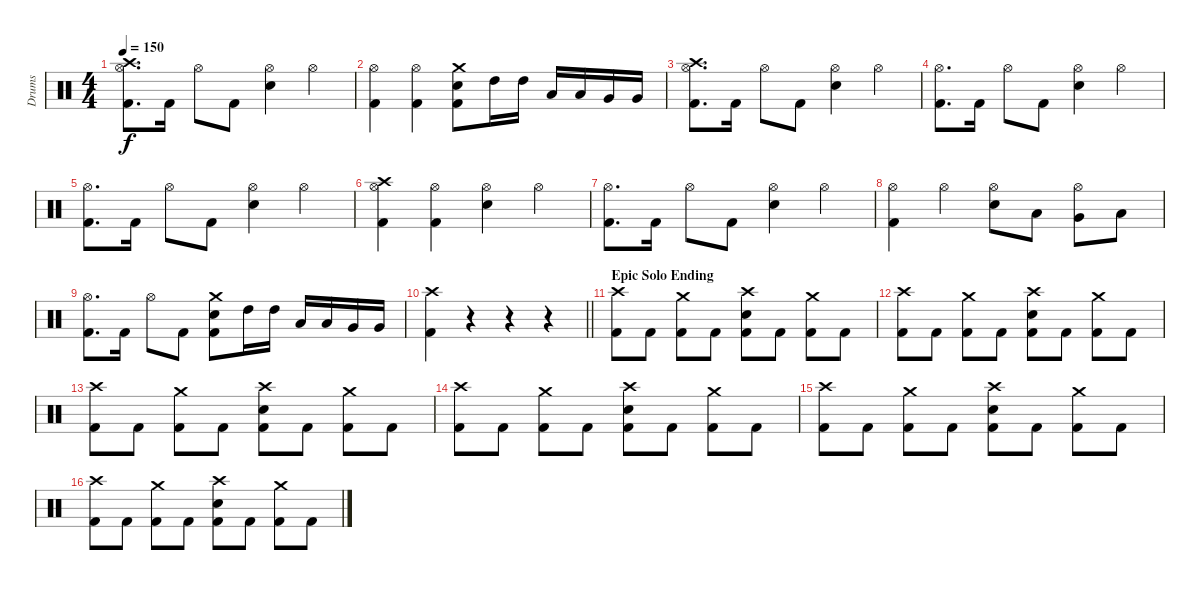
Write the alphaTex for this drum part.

\track ("Drums" "Drums") {instrument percussion}
\staff {score}
\articulation defaults
\ts (4 4)
\tempo 150
\clef neutral
\ks c
("Crash high (hit)" "Hi-Hat (open)" "Kick (hit) 2").8{d dy f} "Kick (hit) 2".16 "Hi-Hat (open)".8 "Kick (hit) 2".8 ("Hi-Hat (open)" "Snare (hit) 2").4 "Hi-Hat (open)".4 |
("Hi-Hat (open)" "Kick (hit) 2").4 ("Hi-Hat (open)" "Kick (hit) 2").4 ("Crash medium (hit)" "Snare (hit) 2" "Kick (hit) 2").8 "High Tom (hit)".16 "High Tom (hit)".16 "Low Tom (hit)".16 "Low Tom (hit)".16 "Very Low Tom (hit)".16 "Very Low Tom (hit)".16 |
("Crash high (hit)" "Hi-Hat (open)" "Kick (hit) 2").8{d} "Kick (hit) 2".16 "Hi-Hat (open)".8 "Kick (hit) 2".8 ("Hi-Hat (open)" "Snare (hit) 2").4 "Hi-Hat (open)".4 |
("Hi-Hat (open)" "Kick (hit) 2").8{d} "Kick (hit) 2".16 "Hi-Hat (open)".8 "Kick (hit) 2".8 ("Hi-Hat (open)" "Snare (hit) 2").4 "Hi-Hat (open)".4 |
("Hi-Hat (open)" "Kick (hit) 2").8{d} "Kick (hit) 2".16 "Hi-Hat (open)".8 "Kick (hit) 2".8 ("Hi-Hat (open)" "Snare (hit) 2").4 "Hi-Hat (open)".4 |
("Crash high (hit)" "Hi-Hat (open)" "Kick (hit) 2").4 ("Hi-Hat (open)" "Kick (hit) 2").4 ("Hi-Hat (open)" "Snare (hit) 2").4 "Hi-Hat (open)".4 |
("Hi-Hat (open)" "Kick (hit) 2").8{d} "Kick (hit) 2".16 "Hi-Hat (open)".8 "Kick (hit) 2".8 ("Hi-Hat (open)" "Snare (hit) 2").4 "Hi-Hat (open)".4 |
("Hi-Hat (open)" "Kick (hit) 2").4 "Hi-Hat (open)".4 ("Hi-Hat (open)" "Snare (hit) 2").8 "Low Tom (hit)".8 ("Hi-Hat (open)" "Very Low Tom (hit)").8 "Low Floor Tom (hit)".8 |
("Hi-Hat (open)" "Kick (hit) 2").8{d} "Kick (hit) 2".16 "Hi-Hat (open)".8 "Kick (hit) 2".8 ("Crash medium (hit)" "Snare (hit) 2" "Kick (hit) 2").8 "High Tom (hit)".16 "High Tom (hit)".16 "Low Tom (hit)".16 "Low Tom (hit)".16 "Very Low Tom (hit)".16 "Very Low Tom (hit)".16 |
\barLineRight lightlight
("Crash high (hit)" "Kick (hit) 2").4 r.4 r.4 r.4 |
\section ("" "Epic Solo Ending")
("Crash high (hit)" "Kick (hit) 2").8 "Kick (hit) 2".8 ("Crash medium (hit)" "Kick (hit) 2").8 "Kick (hit) 2".8 ("Crash high (hit)" "Snare (hit) 2" "Kick (hit) 2").8 "Kick (hit) 2".8 ("Crash medium (hit)" "Kick (hit) 2").8 "Kick (hit) 2".8 |
("Crash high (hit)" "Kick (hit) 2").8 "Kick (hit) 2".8 ("Crash medium (hit)" "Kick (hit) 2").8 "Kick (hit) 2".8 ("Crash high (hit)" "Snare (hit) 2" "Kick (hit) 2").8 "Kick (hit) 2".8 ("Crash medium (hit)" "Kick (hit) 2").8 "Kick (hit) 2".8 |
("Crash high (hit)" "Kick (hit) 2").8 "Kick (hit) 2".8 ("Crash medium (hit)" "Kick (hit) 2").8 "Kick (hit) 2".8 ("Crash high (hit)" "Snare (hit) 2" "Kick (hit) 2").8 "Kick (hit) 2".8 ("Crash medium (hit)" "Kick (hit) 2").8 "Kick (hit) 2".8 |
("Crash high (hit)" "Kick (hit) 2").8 "Kick (hit) 2".8 ("Crash medium (hit)" "Kick (hit) 2").8 "Kick (hit) 2".8 ("Crash high (hit)" "Snare (hit) 2" "Kick (hit) 2").8 "Kick (hit) 2".8 ("Crash medium (hit)" "Kick (hit) 2").8 "Kick (hit) 2".8 |
("Crash high (hit)" "Kick (hit) 2").8 "Kick (hit) 2".8 ("Crash medium (hit)" "Kick (hit) 2").8 "Kick (hit) 2".8 ("Crash high (hit)" "Snare (hit) 2" "Kick (hit) 2").8 "Kick (hit) 2".8 ("Crash medium (hit)" "Kick (hit) 2").8 "Kick (hit) 2".8 |
("Crash high (hit)" "Kick (hit) 2").8 "Kick (hit) 2".8 ("Crash medium (hit)" "Kick (hit) 2").8 "Kick (hit) 2".8 ("Crash high (hit)" "Snare (hit) 2" "Kick (hit) 2").8 "Kick (hit) 2".8 ("Crash medium (hit)" "Kick (hit) 2").8 "Kick (hit) 2".8
